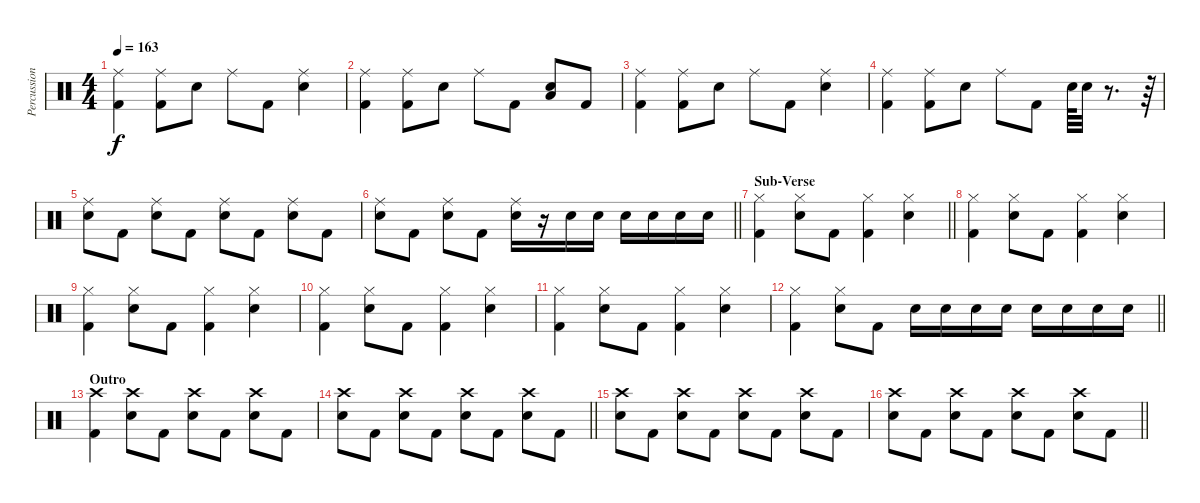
\track ("Percussion" "Percussion") {instrument percussion}
\staff {score}
\articulation defaults
\ts (4 4)
\tempo 163
\clef neutral
\ks c
("Ride (middle)" "Kick (hit) 2").4{dy f} ("Ride (middle)" "Kick (hit) 2").8 "Electric Snare (hit)".8 "Ride (middle)".8 "Kick (hit) 2".8 ("Ride (middle)" "Electric Snare (hit)").4 |
("Ride (middle)" "Kick (hit) 2").4 ("Ride (middle)" "Kick (hit) 2").8 "Electric Snare (hit)".8 "Ride (middle)".8 "Kick (hit) 2".8 ("Low Floor Tom (hit)" "Electric Snare (hit)").8 "Kick (hit) 2".8 |
("Ride (middle)" "Kick (hit) 2").4 ("Ride (middle)" "Kick (hit) 2").8 "Electric Snare (hit)".8 "Ride (middle)".8 "Kick (hit) 2".8 ("Ride (middle)" "Electric Snare (hit)").4 |
("Ride (middle)" "Kick (hit) 2").4 ("Ride (middle)" "Kick (hit) 2").8 "Electric Snare (hit)".8 "Ride (middle)".8 "Kick (hit) 2".8 "Electric Snare (hit)".64 "Electric Snare (hit)".32 r.8{d} r.64 |
("Ride (middle)" "Electric Snare (hit)").8 "Kick (hit) 2".8 ("Ride (middle)" "Electric Snare (hit)").8 "Kick (hit) 2".8 ("Ride (middle)" "Electric Snare (hit)").8 "Kick (hit) 2".8 ("Ride (middle)" "Electric Snare (hit)").8 "Kick (hit) 2".8 |
\barLineRight lightlight
("Ride (middle)" "Electric Snare (hit)").8 "Kick (hit) 2".8 ("Ride (middle)" "Electric Snare (hit)").8 "Kick (hit) 2".8 ("Ride (middle)" "Electric Snare (hit)").16 r.16 "Electric Snare (hit)".16 "Electric Snare (hit)".16 "Electric Snare (hit)".16 "Electric Snare (hit)".16 "Electric Snare (hit)".16 "Electric Snare (hit)".16 |
\section ("" "Sub-Verse")
\barLineRight lightlight
("Hi-Hat (closed)" "Kick (hit) 2").4 ("Hi-Hat (closed)" "Electric Snare (hit)").8 "Kick (hit) 2".8 ("Hi-Hat (closed)" "Kick (hit) 2").4 ("Hi-Hat (closed)" "Electric Snare (hit)").4 |
("Hi-Hat (closed)" "Kick (hit) 2").4 ("Hi-Hat (closed)" "Electric Snare (hit)").8 "Kick (hit) 2".8 ("Hi-Hat (closed)" "Kick (hit) 2").4 ("Hi-Hat (closed)" "Electric Snare (hit)").4 |
("Hi-Hat (closed)" "Kick (hit) 2").4 ("Hi-Hat (closed)" "Electric Snare (hit)").8 "Kick (hit) 2".8 ("Hi-Hat (closed)" "Kick (hit) 2").4 ("Hi-Hat (closed)" "Electric Snare (hit)").4 |
("Hi-Hat (closed)" "Kick (hit) 2").4 ("Hi-Hat (closed)" "Electric Snare (hit)").8 "Kick (hit) 2".8 ("Hi-Hat (closed)" "Kick (hit) 2").4 ("Hi-Hat (closed)" "Electric Snare (hit)").4 |
("Hi-Hat (closed)" "Kick (hit) 2").4 ("Hi-Hat (closed)" "Electric Snare (hit)").8 "Kick (hit) 2".8 ("Hi-Hat (closed)" "Kick (hit) 2").4 ("Hi-Hat (closed)" "Electric Snare (hit)").4 |
\barLineRight lightlight
("Hi-Hat (closed)" "Kick (hit) 2").4 ("Hi-Hat (closed)" "Electric Snare (hit)").8 "Kick (hit) 2".8 "Electric Snare (hit)".16 "Electric Snare (hit)".16 "Electric Snare (hit)".16 "Electric Snare (hit)".16 "Electric Snare (hit)".16 "Electric Snare (hit)".16 "Electric Snare (hit)".16 "Electric Snare (hit)".16 |
\section ("" "Outro")
("Crash high (hit)" "Kick (hit) 2").4 ("Crash high (hit)" "Electric Snare (hit)").8 "Kick (hit) 2".8 ("Crash high (hit)" "Electric Snare (hit)").8 "Kick (hit) 2".8 ("Crash high (hit)" "Electric Snare (hit)").8 "Kick (hit) 2".8 |
\barLineRight lightlight
("Crash high (hit)" "Electric Snare (hit)").8 "Kick (hit) 2".8 ("Crash high (hit)" "Electric Snare (hit)").8 "Kick (hit) 2".8 ("Crash high (hit)" "Electric Snare (hit)").8 "Kick (hit) 2".8 ("Crash high (hit)" "Electric Snare (hit)").8 "Kick (hit) 2".8 |
("Crash high (hit)" "Electric Snare (hit)").8 "Kick (hit) 2".8 ("Crash high (hit)" "Electric Snare (hit)").8 "Kick (hit) 2".8 ("Crash high (hit)" "Electric Snare (hit)").8 "Kick (hit) 2".8 ("Crash high (hit)" "Electric Snare (hit)").8 "Kick (hit) 2".8 |
\barLineRight lightlight
("Crash high (hit)" "Electric Snare (hit)").8 "Kick (hit) 2".8 ("Crash high (hit)" "Electric Snare (hit)").8 "Kick (hit) 2".8 ("Crash high (hit)" "Electric Snare (hit)").8 "Kick (hit) 2".8 ("Crash high (hit)" "Electric Snare (hit)").8 "Kick (hit) 2".8
